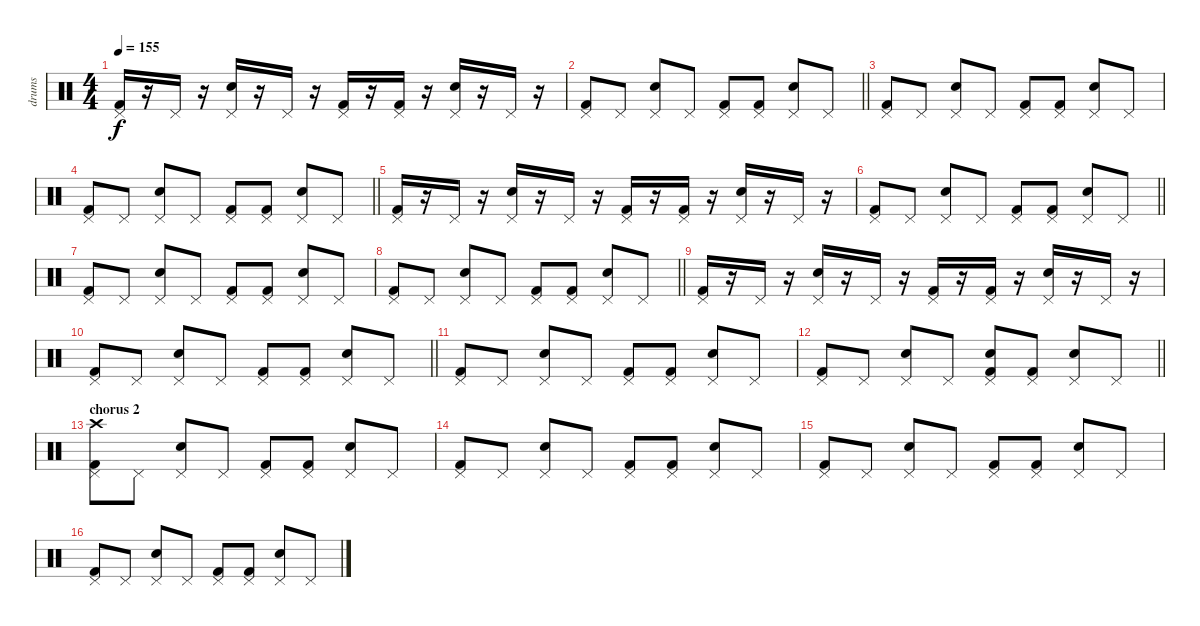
\track ("drums" "drums") {instrument percussion}
\staff {score}
\articulation defaults
\ts (4 4)
\tempo 155
\clef neutral
\ks c
("Kick (hit) 2" "Pedal Hi-Hat (hit)").16{dy f} r.16 "Pedal Hi-Hat (hit)".16 r.16 ("Electric Snare (hit)" "Pedal Hi-Hat (hit)").16 r.16 "Pedal Hi-Hat (hit)".16 r.16 ("Kick (hit) 2" "Pedal Hi-Hat (hit)").16 r.16 ("Kick (hit) 2" "Pedal Hi-Hat (hit)").16 r.16 ("Electric Snare (hit)" "Pedal Hi-Hat (hit)").16 r.16 "Pedal Hi-Hat (hit)".16 r.16 |
\barLineRight lightlight
("Kick (hit) 2" "Pedal Hi-Hat (hit)").8 "Pedal Hi-Hat (hit)".8 ("Electric Snare (hit)" "Pedal Hi-Hat (hit)").8 "Pedal Hi-Hat (hit)".8 ("Kick (hit) 2" "Pedal Hi-Hat (hit)").8 ("Kick (hit) 2" "Pedal Hi-Hat (hit)").8 ("Electric Snare (hit)" "Pedal Hi-Hat (hit)").8 "Pedal Hi-Hat (hit)".8 |
("Kick (hit) 2" "Pedal Hi-Hat (hit)").8 "Pedal Hi-Hat (hit)".8 ("Electric Snare (hit)" "Pedal Hi-Hat (hit)").8 "Pedal Hi-Hat (hit)".8 ("Kick (hit) 2" "Pedal Hi-Hat (hit)").8 ("Kick (hit) 2" "Pedal Hi-Hat (hit)").8 ("Electric Snare (hit)" "Pedal Hi-Hat (hit)").8 "Pedal Hi-Hat (hit)".8 |
\barLineRight lightlight
("Kick (hit) 2" "Pedal Hi-Hat (hit)").8 "Pedal Hi-Hat (hit)".8 ("Electric Snare (hit)" "Pedal Hi-Hat (hit)").8 "Pedal Hi-Hat (hit)".8 ("Kick (hit) 2" "Pedal Hi-Hat (hit)").8 ("Kick (hit) 2" "Pedal Hi-Hat (hit)").8 ("Electric Snare (hit)" "Pedal Hi-Hat (hit)").8 "Pedal Hi-Hat (hit)".8 |
("Kick (hit) 2" "Pedal Hi-Hat (hit)").16 r.16 "Pedal Hi-Hat (hit)".16 r.16 ("Electric Snare (hit)" "Pedal Hi-Hat (hit)").16 r.16 "Pedal Hi-Hat (hit)".16 r.16 ("Kick (hit) 2" "Pedal Hi-Hat (hit)").16 r.16 ("Kick (hit) 2" "Pedal Hi-Hat (hit)").16 r.16 ("Electric Snare (hit)" "Pedal Hi-Hat (hit)").16 r.16 "Pedal Hi-Hat (hit)".16 r.16 |
\barLineRight lightlight
("Kick (hit) 2" "Pedal Hi-Hat (hit)").8 "Pedal Hi-Hat (hit)".8 ("Electric Snare (hit)" "Pedal Hi-Hat (hit)").8 "Pedal Hi-Hat (hit)".8 ("Kick (hit) 2" "Pedal Hi-Hat (hit)").8 ("Kick (hit) 2" "Pedal Hi-Hat (hit)").8 ("Electric Snare (hit)" "Pedal Hi-Hat (hit)").8 "Pedal Hi-Hat (hit)".8 |
("Kick (hit) 2" "Pedal Hi-Hat (hit)").8 "Pedal Hi-Hat (hit)".8 ("Electric Snare (hit)" "Pedal Hi-Hat (hit)").8 "Pedal Hi-Hat (hit)".8 ("Kick (hit) 2" "Pedal Hi-Hat (hit)").8 ("Kick (hit) 2" "Pedal Hi-Hat (hit)").8 ("Electric Snare (hit)" "Pedal Hi-Hat (hit)").8 "Pedal Hi-Hat (hit)".8 |
\barLineRight lightlight
("Kick (hit) 2" "Pedal Hi-Hat (hit)").8 "Pedal Hi-Hat (hit)".8 ("Electric Snare (hit)" "Pedal Hi-Hat (hit)").8 "Pedal Hi-Hat (hit)".8 ("Kick (hit) 2" "Pedal Hi-Hat (hit)").8 ("Kick (hit) 2" "Pedal Hi-Hat (hit)").8 ("Electric Snare (hit)" "Pedal Hi-Hat (hit)").8 "Pedal Hi-Hat (hit)".8 |
("Kick (hit) 2" "Pedal Hi-Hat (hit)").16 r.16 "Pedal Hi-Hat (hit)".16 r.16 ("Electric Snare (hit)" "Pedal Hi-Hat (hit)").16 r.16 "Pedal Hi-Hat (hit)".16 r.16 ("Kick (hit) 2" "Pedal Hi-Hat (hit)").16 r.16 ("Kick (hit) 2" "Pedal Hi-Hat (hit)").16 r.16 ("Electric Snare (hit)" "Pedal Hi-Hat (hit)").16 r.16 "Pedal Hi-Hat (hit)".16 r.16 |
\barLineRight lightlight
("Kick (hit) 2" "Pedal Hi-Hat (hit)").8 "Pedal Hi-Hat (hit)".8 ("Electric Snare (hit)" "Pedal Hi-Hat (hit)").8 "Pedal Hi-Hat (hit)".8 ("Kick (hit) 2" "Pedal Hi-Hat (hit)").8 ("Kick (hit) 2" "Pedal Hi-Hat (hit)").8 ("Electric Snare (hit)" "Pedal Hi-Hat (hit)").8 "Pedal Hi-Hat (hit)".8 |
("Kick (hit) 2" "Pedal Hi-Hat (hit)").8 "Pedal Hi-Hat (hit)".8 ("Electric Snare (hit)" "Pedal Hi-Hat (hit)").8 "Pedal Hi-Hat (hit)".8 ("Kick (hit) 2" "Pedal Hi-Hat (hit)").8 ("Kick (hit) 2" "Pedal Hi-Hat (hit)").8 ("Electric Snare (hit)" "Pedal Hi-Hat (hit)").8 "Pedal Hi-Hat (hit)".8 |
\barLineRight lightlight
("Kick (hit) 2" "Pedal Hi-Hat (hit)").8 "Pedal Hi-Hat (hit)".8 ("Electric Snare (hit)" "Pedal Hi-Hat (hit)").8 "Pedal Hi-Hat (hit)".8 ("Kick (hit) 2" "Electric Snare (hit)" "Pedal Hi-Hat (hit)").8 ("Kick (hit) 2" "Pedal Hi-Hat (hit)").8 ("Electric Snare (hit)" "Pedal Hi-Hat (hit)").8 "Pedal Hi-Hat (hit)".8 |
\section ("" "chorus 2")
("Kick (hit) 2" "Pedal Hi-Hat (hit)" "Crash high (hit)").8 "Pedal Hi-Hat (hit)".8 ("Electric Snare (hit)" "Pedal Hi-Hat (hit)").8 "Pedal Hi-Hat (hit)".8 ("Kick (hit) 2" "Pedal Hi-Hat (hit)").8 ("Kick (hit) 2" "Pedal Hi-Hat (hit)").8 ("Electric Snare (hit)" "Pedal Hi-Hat (hit)").8 "Pedal Hi-Hat (hit)".8 |
("Kick (hit) 2" "Pedal Hi-Hat (hit)").8 "Pedal Hi-Hat (hit)".8 ("Electric Snare (hit)" "Pedal Hi-Hat (hit)").8 "Pedal Hi-Hat (hit)".8 ("Kick (hit) 2" "Pedal Hi-Hat (hit)").8 ("Kick (hit) 2" "Pedal Hi-Hat (hit)").8 ("Electric Snare (hit)" "Pedal Hi-Hat (hit)").8 "Pedal Hi-Hat (hit)".8 |
("Kick (hit) 2" "Pedal Hi-Hat (hit)").8 "Pedal Hi-Hat (hit)".8 ("Electric Snare (hit)" "Pedal Hi-Hat (hit)").8 "Pedal Hi-Hat (hit)".8 ("Kick (hit) 2" "Pedal Hi-Hat (hit)").8 ("Kick (hit) 2" "Pedal Hi-Hat (hit)").8 ("Electric Snare (hit)" "Pedal Hi-Hat (hit)").8 "Pedal Hi-Hat (hit)".8 |
("Kick (hit) 2" "Pedal Hi-Hat (hit)").8 "Pedal Hi-Hat (hit)".8 ("Electric Snare (hit)" "Pedal Hi-Hat (hit)").8 "Pedal Hi-Hat (hit)".8 ("Kick (hit) 2" "Pedal Hi-Hat (hit)").8 ("Kick (hit) 2" "Pedal Hi-Hat (hit)").8 ("Electric Snare (hit)" "Pedal Hi-Hat (hit)").8 "Pedal Hi-Hat (hit)".8
